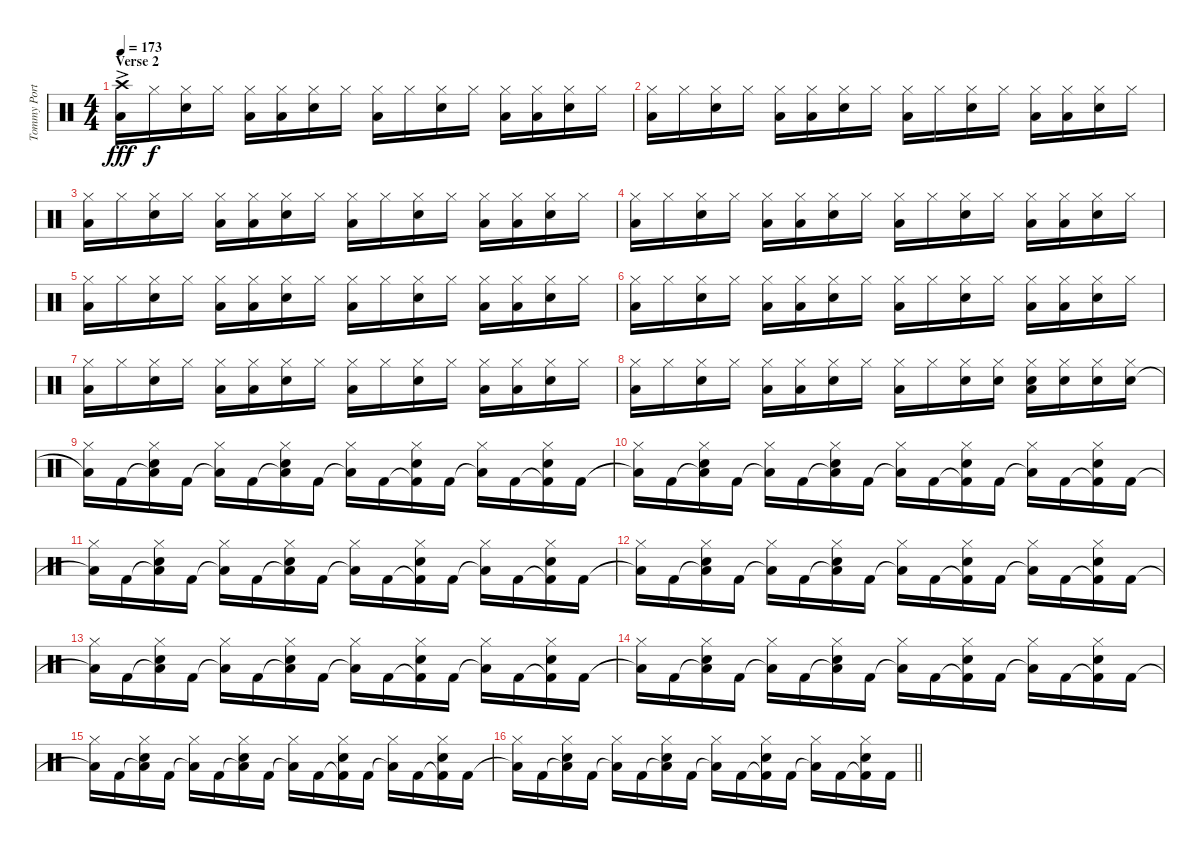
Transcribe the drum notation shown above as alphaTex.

\track ("Tommy Portimo - Drums" "Tommy Port") {instrument percussion}
\staff {score}
\articulation defaults
\ts (4 4)
\section ("" "Verse 2")
\tempo 173
\clef neutral
\ks aminor
("Low Floor Tom (hit)"{ac} "Crash high (hit)").16{dy fff} "Hi-Hat (closed)".16{dy f} ("Electric Snare (hit)" "Hi-Hat (closed)").16 "Hi-Hat (closed)".16 ("Low Floor Tom (hit)" "Hi-Hat (closed)").16 ("Low Floor Tom (hit)" "Hi-Hat (closed)").16 ("Electric Snare (hit)" "Hi-Hat (closed)").16 "Hi-Hat (closed)".16 ("Low Floor Tom (hit)" "Hi-Hat (closed)").16 "Hi-Hat (closed)".16 ("Electric Snare (hit)" "Hi-Hat (closed)").16 "Hi-Hat (closed)".16 ("Low Floor Tom (hit)" "Hi-Hat (closed)").16 ("Low Floor Tom (hit)" "Hi-Hat (closed)").16 ("Electric Snare (hit)" "Hi-Hat (closed)").16 "Hi-Hat (closed)".16 |
("Low Floor Tom (hit)" "Hi-Hat (closed)").16 "Hi-Hat (closed)".16 ("Electric Snare (hit)" "Hi-Hat (closed)").16 "Hi-Hat (closed)".16 ("Low Floor Tom (hit)" "Hi-Hat (closed)").16 ("Low Floor Tom (hit)" "Hi-Hat (closed)").16 ("Electric Snare (hit)" "Hi-Hat (closed)").16 "Hi-Hat (closed)".16 ("Low Floor Tom (hit)" "Hi-Hat (closed)").16 "Hi-Hat (closed)".16 ("Electric Snare (hit)" "Hi-Hat (closed)").16 "Hi-Hat (closed)".16 ("Low Floor Tom (hit)" "Hi-Hat (closed)").16 ("Low Floor Tom (hit)" "Hi-Hat (closed)").16 ("Electric Snare (hit)" "Hi-Hat (closed)").16 "Hi-Hat (closed)".16 |
("Low Floor Tom (hit)" "Hi-Hat (closed)").16 "Hi-Hat (closed)".16 ("Electric Snare (hit)" "Hi-Hat (closed)").16 "Hi-Hat (closed)".16 ("Low Floor Tom (hit)" "Hi-Hat (closed)").16 ("Low Floor Tom (hit)" "Hi-Hat (closed)").16 ("Electric Snare (hit)" "Hi-Hat (closed)").16 "Hi-Hat (closed)".16 ("Low Floor Tom (hit)" "Hi-Hat (closed)").16 "Hi-Hat (closed)".16 ("Electric Snare (hit)" "Hi-Hat (closed)").16 "Hi-Hat (closed)".16 ("Low Floor Tom (hit)" "Hi-Hat (closed)").16 ("Low Floor Tom (hit)" "Hi-Hat (closed)").16 ("Electric Snare (hit)" "Hi-Hat (closed)").16 "Hi-Hat (closed)".16 |
("Low Floor Tom (hit)" "Hi-Hat (closed)").16 "Hi-Hat (closed)".16 ("Electric Snare (hit)" "Hi-Hat (closed)").16 "Hi-Hat (closed)".16 ("Low Floor Tom (hit)" "Hi-Hat (closed)").16 ("Low Floor Tom (hit)" "Hi-Hat (closed)").16 ("Electric Snare (hit)" "Hi-Hat (closed)").16 "Hi-Hat (closed)".16 ("Low Floor Tom (hit)" "Hi-Hat (closed)").16 "Hi-Hat (closed)".16 ("Electric Snare (hit)" "Hi-Hat (closed)").16 "Hi-Hat (closed)".16 ("Low Floor Tom (hit)" "Hi-Hat (closed)").16 ("Low Floor Tom (hit)" "Hi-Hat (closed)").16 ("Electric Snare (hit)" "Hi-Hat (closed)").16 "Hi-Hat (closed)".16 |
("Low Floor Tom (hit)" "Hi-Hat (closed)").16 "Hi-Hat (closed)".16 ("Electric Snare (hit)" "Hi-Hat (closed)").16 "Hi-Hat (closed)".16 ("Low Floor Tom (hit)" "Hi-Hat (closed)").16 ("Low Floor Tom (hit)" "Hi-Hat (closed)").16 ("Electric Snare (hit)" "Hi-Hat (closed)").16 "Hi-Hat (closed)".16 ("Low Floor Tom (hit)" "Hi-Hat (closed)").16 "Hi-Hat (closed)".16 ("Electric Snare (hit)" "Hi-Hat (closed)").16 "Hi-Hat (closed)".16 ("Low Floor Tom (hit)" "Hi-Hat (closed)").16 ("Low Floor Tom (hit)" "Hi-Hat (closed)").16 ("Electric Snare (hit)" "Hi-Hat (closed)").16 "Hi-Hat (closed)".16 |
("Low Floor Tom (hit)" "Hi-Hat (closed)").16 "Hi-Hat (closed)".16 ("Electric Snare (hit)" "Hi-Hat (closed)").16 "Hi-Hat (closed)".16 ("Low Floor Tom (hit)" "Hi-Hat (closed)").16 ("Low Floor Tom (hit)" "Hi-Hat (closed)").16 ("Electric Snare (hit)" "Hi-Hat (closed)").16 "Hi-Hat (closed)".16 ("Low Floor Tom (hit)" "Hi-Hat (closed)").16 "Hi-Hat (closed)".16 ("Electric Snare (hit)" "Hi-Hat (closed)").16 "Hi-Hat (closed)".16 ("Low Floor Tom (hit)" "Hi-Hat (closed)").16 ("Low Floor Tom (hit)" "Hi-Hat (closed)").16 ("Electric Snare (hit)" "Hi-Hat (closed)").16 "Hi-Hat (closed)".16 |
("Low Floor Tom (hit)" "Hi-Hat (closed)").16 "Hi-Hat (closed)".16 ("Electric Snare (hit)" "Hi-Hat (closed)").16 "Hi-Hat (closed)".16 ("Low Floor Tom (hit)" "Hi-Hat (closed)").16 ("Low Floor Tom (hit)" "Hi-Hat (closed)").16 ("Electric Snare (hit)" "Hi-Hat (closed)").16 "Hi-Hat (closed)".16 ("Low Floor Tom (hit)" "Hi-Hat (closed)").16 "Hi-Hat (closed)".16 ("Electric Snare (hit)" "Hi-Hat (closed)").16 "Hi-Hat (closed)".16 ("Low Floor Tom (hit)" "Hi-Hat (closed)").16 ("Low Floor Tom (hit)" "Hi-Hat (closed)").16 ("Electric Snare (hit)" "Hi-Hat (closed)").16 "Hi-Hat (closed)".16 |
("Low Floor Tom (hit)" "Hi-Hat (closed)").16 "Hi-Hat (closed)".16 ("Electric Snare (hit)" "Hi-Hat (closed)").16 "Hi-Hat (closed)".16 ("Low Floor Tom (hit)" "Hi-Hat (closed)").16 ("Low Floor Tom (hit)" "Hi-Hat (closed)").16 ("Electric Snare (hit)" "Hi-Hat (closed)").16 "Hi-Hat (closed)".16 ("Low Floor Tom (hit)" "Hi-Hat (closed)").16 "Hi-Hat (closed)".16 ("Electric Snare (hit)" "Hi-Hat (closed)").16 ("Electric Snare (hit)" "Hi-Hat (closed)").16 ("Low Floor Tom (hit)" "Electric Snare (hit)" "Hi-Hat (closed)").16 ("Electric Snare (hit)" "Hi-Hat (closed)").16 ("Electric Snare (hit)" "Hi-Hat (closed)").16 ("Electric Snare (hit)" "Hi-Hat (closed)").16 |
("Low Floor Tom (hit)"{t} "Hi-Hat (closed)").16 "Kick (hit) 2".16 ("Low Floor Tom (hit)"{t} "Electric Snare (hit)" "Hi-Hat (closed)").16 "Kick (hit) 2".16 ("Low Floor Tom (hit)"{t} "Hi-Hat (closed)").16 "Kick (hit) 2".16 ("Low Floor Tom (hit)"{t} "Electric Snare (hit)" "Hi-Hat (closed)").16 "Kick (hit) 2".16 ("Low Floor Tom (hit)"{t} "Hi-Hat (closed)").16 "Kick (hit) 2".16 ("Kick (hit) 2"{t} "Electric Snare (hit)" "Hi-Hat (closed)").16 "Kick (hit) 2".16 ("Low Floor Tom (hit)"{t} "Hi-Hat (closed)").16 "Kick (hit) 2".16 ("Kick (hit) 2"{t} "Electric Snare (hit)" "Hi-Hat (closed)").16 "Kick (hit) 2".16 |
("Low Floor Tom (hit)"{t} "Hi-Hat (closed)").16 "Kick (hit) 2".16 ("Low Floor Tom (hit)"{t} "Electric Snare (hit)" "Hi-Hat (closed)").16 "Kick (hit) 2".16 ("Low Floor Tom (hit)"{t} "Hi-Hat (closed)").16 "Kick (hit) 2".16 ("Low Floor Tom (hit)"{t} "Electric Snare (hit)" "Hi-Hat (closed)").16 "Kick (hit) 2".16 ("Low Floor Tom (hit)"{t} "Hi-Hat (closed)").16 "Kick (hit) 2".16 ("Kick (hit) 2"{t} "Electric Snare (hit)" "Hi-Hat (closed)").16 "Kick (hit) 2".16 ("Low Floor Tom (hit)"{t} "Hi-Hat (closed)").16 "Kick (hit) 2".16 ("Kick (hit) 2"{t} "Electric Snare (hit)" "Hi-Hat (closed)").16 "Kick (hit) 2".16 |
("Low Floor Tom (hit)"{t} "Hi-Hat (closed)").16 "Kick (hit) 2".16 ("Low Floor Tom (hit)"{t} "Electric Snare (hit)" "Hi-Hat (closed)").16 "Kick (hit) 2".16 ("Low Floor Tom (hit)"{t} "Hi-Hat (closed)").16 "Kick (hit) 2".16 ("Low Floor Tom (hit)"{t} "Electric Snare (hit)" "Hi-Hat (closed)").16 "Kick (hit) 2".16 ("Low Floor Tom (hit)"{t} "Hi-Hat (closed)").16 "Kick (hit) 2".16 ("Kick (hit) 2"{t} "Electric Snare (hit)" "Hi-Hat (closed)").16 "Kick (hit) 2".16 ("Low Floor Tom (hit)"{t} "Hi-Hat (closed)").16 "Kick (hit) 2".16 ("Kick (hit) 2"{t} "Electric Snare (hit)" "Hi-Hat (closed)").16 "Kick (hit) 2".16 |
("Low Floor Tom (hit)"{t} "Hi-Hat (closed)").16 "Kick (hit) 2".16 ("Low Floor Tom (hit)"{t} "Electric Snare (hit)" "Hi-Hat (closed)").16 "Kick (hit) 2".16 ("Low Floor Tom (hit)"{t} "Hi-Hat (closed)").16 "Kick (hit) 2".16 ("Low Floor Tom (hit)"{t} "Electric Snare (hit)" "Hi-Hat (closed)").16 "Kick (hit) 2".16 ("Low Floor Tom (hit)"{t} "Hi-Hat (closed)").16 "Kick (hit) 2".16 ("Kick (hit) 2"{t} "Electric Snare (hit)" "Hi-Hat (closed)").16 "Kick (hit) 2".16 ("Low Floor Tom (hit)"{t} "Hi-Hat (closed)").16 "Kick (hit) 2".16 ("Kick (hit) 2"{t} "Electric Snare (hit)" "Hi-Hat (closed)").16 "Kick (hit) 2".16 |
("Low Floor Tom (hit)"{t} "Hi-Hat (closed)").16 "Kick (hit) 2".16 ("Low Floor Tom (hit)"{t} "Electric Snare (hit)" "Hi-Hat (closed)").16 "Kick (hit) 2".16 ("Low Floor Tom (hit)"{t} "Hi-Hat (closed)").16 "Kick (hit) 2".16 ("Low Floor Tom (hit)"{t} "Electric Snare (hit)" "Hi-Hat (closed)").16 "Kick (hit) 2".16 ("Low Floor Tom (hit)"{t} "Hi-Hat (closed)").16 "Kick (hit) 2".16 ("Kick (hit) 2"{t} "Electric Snare (hit)" "Hi-Hat (closed)").16 "Kick (hit) 2".16 ("Low Floor Tom (hit)"{t} "Hi-Hat (closed)").16 "Kick (hit) 2".16 ("Kick (hit) 2"{t} "Electric Snare (hit)" "Hi-Hat (closed)").16 "Kick (hit) 2".16 |
("Low Floor Tom (hit)"{t} "Hi-Hat (closed)").16 "Kick (hit) 2".16 ("Low Floor Tom (hit)"{t} "Electric Snare (hit)" "Hi-Hat (closed)").16 "Kick (hit) 2".16 ("Low Floor Tom (hit)"{t} "Hi-Hat (closed)").16 "Kick (hit) 2".16 ("Low Floor Tom (hit)"{t} "Electric Snare (hit)" "Hi-Hat (closed)").16 "Kick (hit) 2".16 ("Low Floor Tom (hit)"{t} "Hi-Hat (closed)").16 "Kick (hit) 2".16 ("Kick (hit) 2"{t} "Electric Snare (hit)" "Hi-Hat (closed)").16 "Kick (hit) 2".16 ("Low Floor Tom (hit)"{t} "Hi-Hat (closed)").16 "Kick (hit) 2".16 ("Kick (hit) 2"{t} "Electric Snare (hit)" "Hi-Hat (closed)").16 "Kick (hit) 2".16 |
("Low Floor Tom (hit)"{t} "Hi-Hat (closed)").16 "Kick (hit) 2".16 ("Low Floor Tom (hit)"{t} "Electric Snare (hit)" "Hi-Hat (closed)").16 "Kick (hit) 2".16 ("Low Floor Tom (hit)"{t} "Hi-Hat (closed)").16 "Kick (hit) 2".16 ("Low Floor Tom (hit)"{t} "Electric Snare (hit)" "Hi-Hat (closed)").16 "Kick (hit) 2".16 ("Low Floor Tom (hit)"{t} "Hi-Hat (closed)").16 "Kick (hit) 2".16 ("Kick (hit) 2"{t} "Electric Snare (hit)" "Hi-Hat (closed)").16 "Kick (hit) 2".16 ("Low Floor Tom (hit)"{t} "Hi-Hat (closed)").16 "Kick (hit) 2".16 ("Kick (hit) 2"{t} "Electric Snare (hit)" "Hi-Hat (closed)").16 "Kick (hit) 2".16 |
\barLineRight lightlight
("Low Floor Tom (hit)"{t} "Hi-Hat (closed)").16 "Kick (hit) 2".16 ("Low Floor Tom (hit)"{t} "Electric Snare (hit)" "Hi-Hat (closed)").16 "Kick (hit) 2".16 ("Low Floor Tom (hit)"{t} "Hi-Hat (closed)").16 "Kick (hit) 2".16 ("Low Floor Tom (hit)"{t} "Electric Snare (hit)" "Hi-Hat (closed)").16 "Kick (hit) 2".16 ("Low Floor Tom (hit)"{t} "Hi-Hat (closed)").16 "Kick (hit) 2".16 ("Kick (hit) 2"{t} "Electric Snare (hit)" "Hi-Hat (closed)").16 "Kick (hit) 2".16 ("Low Floor Tom (hit)"{t} "Hi-Hat (closed)").16 "Kick (hit) 2".16 ("Kick (hit) 2"{t} "Electric Snare (hit)" "Hi-Hat (closed)").16 "Kick (hit) 2".16
